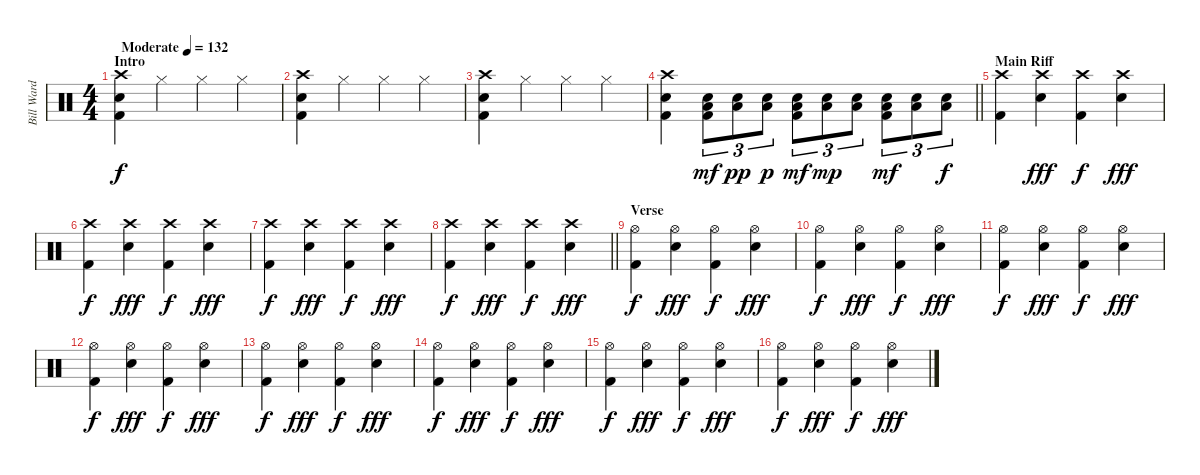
\track ("Bill Ward" "Bill Ward") {instrument percussion}
\staff {score}
\articulation defaults
\ts (4 4)
\section ("" "Intro")
\tempo (132 "Moderate")
\clef neutral
\ks c
("Crash high (hit)" "Snare (hit) 2" "Kick (hit) 2").4{dy f} "Hi-Hat (closed)".4 "Hi-Hat (closed)".4 "Hi-Hat (closed)".4 |
("Crash high (hit)" "Snare (hit) 2" "Kick (hit) 2").4 "Hi-Hat (closed)".4 "Hi-Hat (closed)".4 "Hi-Hat (closed)".4 |
("Crash high (hit)" "Snare (hit) 2" "Kick (hit) 2").4 "Hi-Hat (closed)".4 "Hi-Hat (closed)".4 "Hi-Hat (closed)".4 |
\barLineRight lightlight
("Crash high (hit)" "Snare (hit) 2" "Kick (hit) 2").4 ("Snare (hit) 2" "Low Tom (hit)" "Kick (hit) 2").8{tu (3 2) dy mf} ("Snare (hit) 2" "Low Tom (hit)").8{tu (3 2) dy pp} ("Snare (hit) 2" "Low Tom (hit)").8{tu (3 2) dy p} ("Snare (hit) 2" "Low Tom (hit)" "Kick (hit) 2").8{tu (3 2) dy mf} ("Snare (hit) 2" "Low Tom (hit)").8{tu (3 2) dy mp} ("Snare (hit) 2" "Low Tom (hit)").8{tu (3 2)} ("Snare (hit) 2" "Low Tom (hit)" "Kick (hit) 2").8{tu (3 2) dy mf} ("Snare (hit) 2" "Low Tom (hit)").8{tu (3 2)} ("Snare (hit) 2" "Low Tom (hit)").8{tu (3 2) dy f} |
\section ("" "Main Riff")
("Crash high (hit)" "Kick (hit) 2").4 ("Crash high (hit)" "Snare (hit) 2").4{dy fff} ("Crash high (hit)" "Kick (hit) 2").4{dy f} ("Crash high (hit)" "Snare (hit) 2").4{dy fff} |
("Crash high (hit)" "Kick (hit) 2").4{dy f} ("Crash high (hit)" "Snare (hit) 2").4{dy fff} ("Crash high (hit)" "Kick (hit) 2").4{dy f} ("Crash high (hit)" "Snare (hit) 2").4{dy fff} |
("Crash high (hit)" "Kick (hit) 2").4{dy f} ("Crash high (hit)" "Snare (hit) 2").4{dy fff} ("Crash high (hit)" "Kick (hit) 2").4{dy f} ("Crash high (hit)" "Snare (hit) 2").4{dy fff} |
\barLineRight lightlight
("Crash high (hit)" "Kick (hit) 2").4{dy f} ("Crash high (hit)" "Snare (hit) 2").4{dy fff} ("Crash high (hit)" "Kick (hit) 2").4{dy f} ("Crash high (hit)" "Snare (hit) 2").4{dy fff} |
\section ("" "Verse")
("Hi-Hat (open)" "Kick (hit) 2").4{dy f} ("Hi-Hat (open)" "Snare (hit) 2").4{dy fff} ("Hi-Hat (open)" "Kick (hit) 2").4{dy f} ("Hi-Hat (open)" "Snare (hit) 2").4{dy fff} |
("Hi-Hat (open)" "Kick (hit) 2").4{dy f} ("Hi-Hat (open)" "Snare (hit) 2").4{dy fff} ("Hi-Hat (open)" "Kick (hit) 2").4{dy f} ("Hi-Hat (open)" "Snare (hit) 2").4{dy fff} |
("Hi-Hat (open)" "Kick (hit) 2").4{dy f} ("Hi-Hat (open)" "Snare (hit) 2").4{dy fff} ("Hi-Hat (open)" "Kick (hit) 2").4{dy f} ("Hi-Hat (open)" "Snare (hit) 2").4{dy fff} |
("Hi-Hat (open)" "Kick (hit) 2").4{dy f} ("Hi-Hat (open)" "Snare (hit) 2").4{dy fff} ("Hi-Hat (open)" "Kick (hit) 2").4{dy f} ("Hi-Hat (open)" "Snare (hit) 2").4{dy fff} |
("Hi-Hat (open)" "Kick (hit) 2").4{dy f} ("Hi-Hat (open)" "Snare (hit) 2").4{dy fff} ("Hi-Hat (open)" "Kick (hit) 2").4{dy f} ("Hi-Hat (open)" "Snare (hit) 2").4{dy fff} |
("Hi-Hat (open)" "Kick (hit) 2").4{dy f} ("Hi-Hat (open)" "Snare (hit) 2").4{dy fff} ("Hi-Hat (open)" "Kick (hit) 2").4{dy f} ("Hi-Hat (open)" "Snare (hit) 2").4{dy fff} |
("Hi-Hat (open)" "Kick (hit) 2").4{dy f} ("Hi-Hat (open)" "Snare (hit) 2").4{dy fff} ("Hi-Hat (open)" "Kick (hit) 2").4{dy f} ("Hi-Hat (open)" "Snare (hit) 2").4{dy fff} |
("Hi-Hat (open)" "Kick (hit) 2").4{dy f} ("Hi-Hat (open)" "Snare (hit) 2").4{dy fff} ("Hi-Hat (open)" "Kick (hit) 2").4{dy f} ("Hi-Hat (open)" "Snare (hit) 2").4{dy fff}
